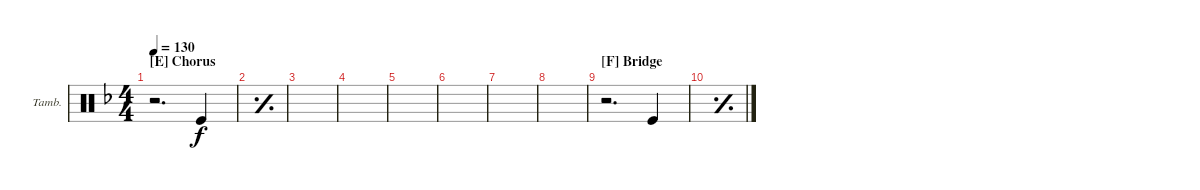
\defaultSystemsLayout 4
\bracketExtendMode groupsimilarinstruments
\firstSystemTrackNameOrientation horizontal
\otherSystemsTrackNameOrientation horizontal
\track ("Tambourine" "Tamb.") {instrument percussion}
\staff {score}
\articulation defaults
\ts (4 4)
\section ("E" "Chorus")
\tempo 130
\clef neutral
\ks f
r.2{d dy f} "Kick (hit)".4 |
\simile simple
|
|
|
|
|
|
|
\section ("F" "Bridge")
\simile none
r.2{d} "Kick (hit)".4 |
\simile simple
